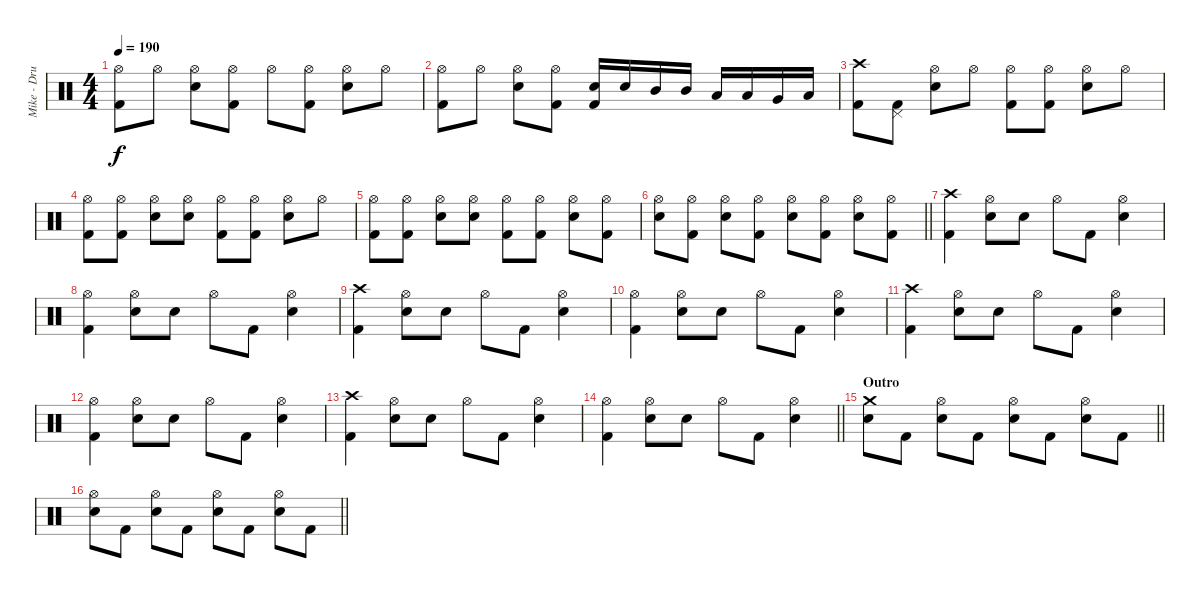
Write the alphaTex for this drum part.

\track ("Mike - Drums" "Mike - Dru") {instrument percussion}
\staff {score}
\articulation defaults
\ts (4 4)
\tempo 190
\clef neutral
\ks c
("Hi-Hat (open)" "Kick (hit) 2").8{dy f} "Hi-Hat (open)".8 ("Hi-Hat (open)" "Electric Snare (hit)").8 ("Hi-Hat (open)" "Kick (hit) 2").8 "Hi-Hat (open)".8 ("Hi-Hat (open)" "Kick (hit) 2").8 ("Hi-Hat (open)" "Electric Snare (hit)").8 "Hi-Hat (open)".8 |
("Hi-Hat (open)" "Kick (hit) 2").8 "Hi-Hat (open)".8 ("Hi-Hat (open)" "Electric Snare (hit)").8 ("Hi-Hat (open)" "Kick (hit) 2").8 ("Kick (hit) 2" "Electric Snare (hit)").16 "Electric Snare (hit)".16 "Mid Tom (hit)".16 "Mid Tom (hit)".16 "Low Tom (hit)".16 "Low Tom (hit)".16 "Very Low Tom (hit)".16 "Low Floor Tom (hit)".16 |
("Crash high (hit)" "Kick (hit) 2").8 ("Pedal Hi-Hat (hit)" "Kick (hit) 2").8 ("Hi-Hat (open)" "Electric Snare (hit)").8 "Hi-Hat (open)".8 ("Hi-Hat (open)" "Kick (hit) 2").8 ("Hi-Hat (open)" "Kick (hit) 2").8 ("Hi-Hat (open)" "Electric Snare (hit)").8 "Hi-Hat (open)".8 |
("Hi-Hat (open)" "Kick (hit) 2").8 ("Hi-Hat (open)" "Kick (hit) 2").8 ("Hi-Hat (open)" "Electric Snare (hit)").8 ("Hi-Hat (open)" "Electric Snare (hit)").8 ("Hi-Hat (open)" "Kick (hit) 2").8 ("Hi-Hat (open)" "Kick (hit) 2").8 ("Hi-Hat (open)" "Electric Snare (hit)").8 "Hi-Hat (open)".8 |
("Hi-Hat (open)" "Kick (hit) 2").8 ("Hi-Hat (open)" "Kick (hit) 2").8 ("Hi-Hat (open)" "Electric Snare (hit)").8 ("Hi-Hat (open)" "Electric Snare (hit)").8 ("Hi-Hat (open)" "Kick (hit) 2").8 ("Hi-Hat (open)" "Kick (hit) 2").8 ("Hi-Hat (open)" "Electric Snare (hit)").8 ("Hi-Hat (open)" "Kick (hit) 2").8 |
\barLineRight lightlight
("Hi-Hat (open)" "Electric Snare (hit)").8 ("Hi-Hat (open)" "Kick (hit) 2").8 ("Hi-Hat (open)" "Electric Snare (hit)").8 ("Hi-Hat (open)" "Kick (hit) 2").8 ("Hi-Hat (open)" "Electric Snare (hit)").8 ("Hi-Hat (open)" "Kick (hit) 2").8 ("Hi-Hat (open)" "Electric Snare (hit)").8 ("Hi-Hat (open)" "Kick (hit) 2").8 |
("Crash high (hit)" "Kick (hit) 2").4 ("Hi-Hat (open)" "Electric Snare (hit)").8 "Electric Snare (hit)".8 "Hi-Hat (open)".8 "Kick (hit) 2".8 ("Hi-Hat (open)" "Electric Snare (hit)").4 |
("Hi-Hat (open)" "Kick (hit) 2").4 ("Hi-Hat (open)" "Electric Snare (hit)").8 "Electric Snare (hit)".8 "Hi-Hat (open)".8 "Kick (hit) 2".8 ("Hi-Hat (open)" "Electric Snare (hit)").4 |
("Crash high (hit)" "Kick (hit) 2").4 ("Hi-Hat (open)" "Electric Snare (hit)").8 "Electric Snare (hit)".8 "Hi-Hat (open)".8 "Kick (hit) 2".8 ("Hi-Hat (open)" "Electric Snare (hit)").4 |
("Hi-Hat (open)" "Kick (hit) 2").4 ("Hi-Hat (open)" "Electric Snare (hit)").8 "Electric Snare (hit)".8 "Hi-Hat (open)".8 "Kick (hit) 2".8 ("Hi-Hat (open)" "Electric Snare (hit)").4 |
("Crash high (hit)" "Kick (hit) 2").4 ("Hi-Hat (open)" "Electric Snare (hit)").8 "Electric Snare (hit)".8 "Hi-Hat (open)".8 "Kick (hit) 2".8 ("Hi-Hat (open)" "Electric Snare (hit)").4 |
("Hi-Hat (open)" "Kick (hit) 2").4 ("Hi-Hat (open)" "Electric Snare (hit)").8 "Electric Snare (hit)".8 "Hi-Hat (open)".8 "Kick (hit) 2".8 ("Hi-Hat (open)" "Electric Snare (hit)").4 |
("Crash high (hit)" "Kick (hit) 2").4 ("Hi-Hat (open)" "Electric Snare (hit)").8 "Electric Snare (hit)".8 "Hi-Hat (open)".8 "Kick (hit) 2".8 ("Hi-Hat (open)" "Electric Snare (hit)").4 |
\barLineRight lightlight
("Hi-Hat (open)" "Kick (hit) 2").4 ("Hi-Hat (open)" "Electric Snare (hit)").8 "Electric Snare (hit)".8 "Hi-Hat (open)".8 "Kick (hit) 2".8 ("Hi-Hat (open)" "Electric Snare (hit)").4 |
\section ("" "Outro")
\barLineRight lightlight
("Crash medium (hit)" "Electric Snare (hit)").8 "Kick (hit) 2".8 ("Hi-Hat (open)" "Electric Snare (hit)").8 "Kick (hit) 2".8 ("Hi-Hat (open)" "Electric Snare (hit)").8 "Kick (hit) 2".8 ("Hi-Hat (open)" "Electric Snare (hit)").8 "Kick (hit) 2".8 |
\barLineRight lightlight
("Hi-Hat (open)" "Electric Snare (hit)").8 "Kick (hit) 2".8 ("Hi-Hat (open)" "Electric Snare (hit)").8 "Kick (hit) 2".8 ("Hi-Hat (open)" "Electric Snare (hit)").8 "Kick (hit) 2".8 ("Hi-Hat (open)" "Electric Snare (hit)").8 "Kick (hit) 2".8
